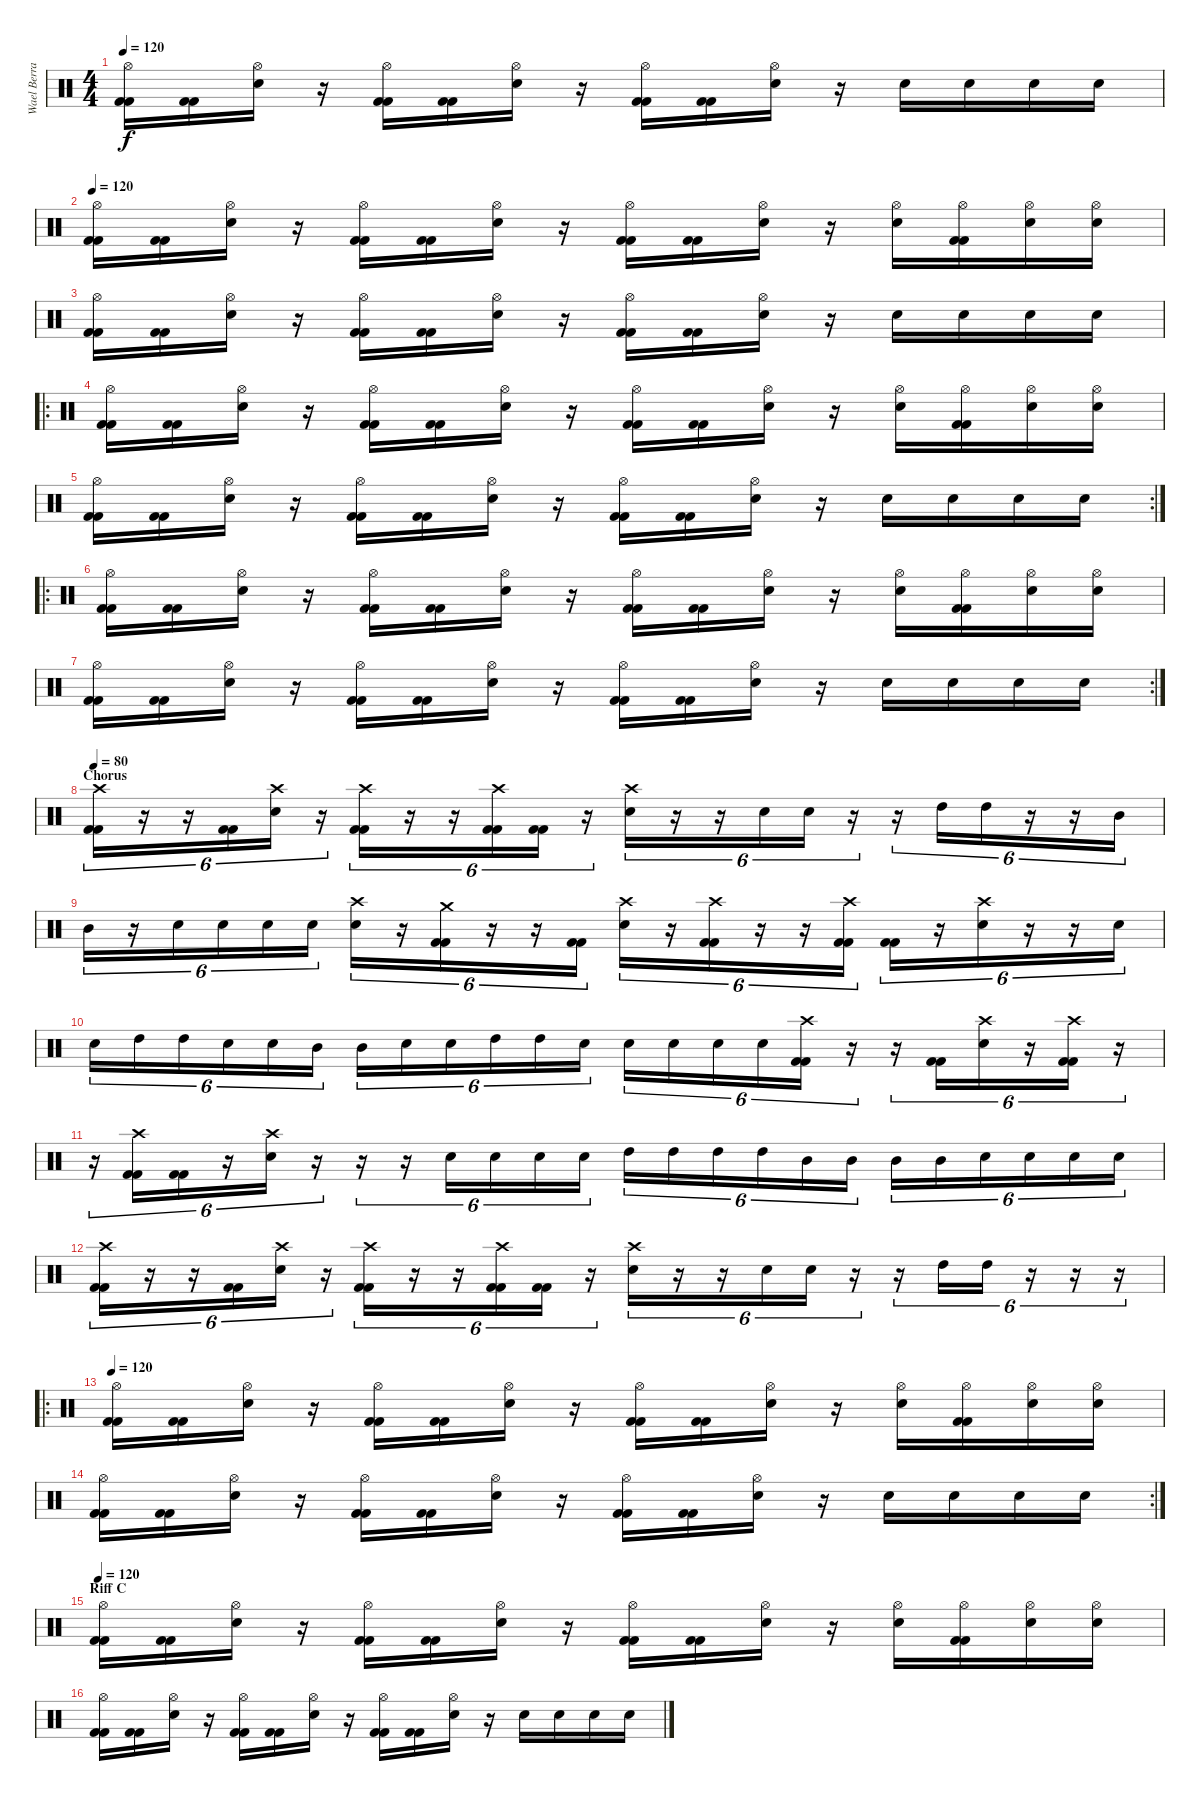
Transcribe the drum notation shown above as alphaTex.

\track ("Wael Berrais" "Wael Berra") {instrument percussion}
\staff {score}
\articulation defaults
\ts (4 4)
\tempo 120
\clef neutral
\ks c
("Hi-Hat (open)" "Kick (hit) 2" "Kick (hit) 2").16{dy f} ("Kick (hit) 2" "Kick (hit) 2").16 ("Hi-Hat (open)" "Electric Snare (hit)").16 r.16 ("Hi-Hat (open)" "Kick (hit) 2" "Kick (hit) 2").16 ("Kick (hit) 2" "Kick (hit) 2").16 ("Hi-Hat (open)" "Electric Snare (hit)").16 r.16 ("Hi-Hat (open)" "Kick (hit) 2" "Kick (hit) 2").16 ("Kick (hit) 2" "Kick (hit) 2").16 ("Hi-Hat (open)" "Electric Snare (hit)").16 r.16 "Electric Snare (hit)".16 "Electric Snare (hit)".16 "Electric Snare (hit)".16 "Electric Snare (hit)".16 |
\tempo 120
("Hi-Hat (open)" "Kick (hit) 2" "Kick (hit) 2").16 ("Kick (hit) 2" "Kick (hit) 2").16 ("Hi-Hat (open)" "Electric Snare (hit)").16 r.16 ("Hi-Hat (open)" "Kick (hit) 2" "Kick (hit) 2").16 ("Kick (hit) 2" "Kick (hit) 2").16 ("Hi-Hat (open)" "Electric Snare (hit)").16 r.16 ("Hi-Hat (open)" "Kick (hit) 2" "Kick (hit) 2").16 ("Kick (hit) 2" "Kick (hit) 2").16 ("Hi-Hat (open)" "Electric Snare (hit)").16 r.16 ("Hi-Hat (open)" "Electric Snare (hit)").16 ("Hi-Hat (open)" "Kick (hit) 2" "Kick (hit) 2").16 ("Hi-Hat (open)" "Electric Snare (hit)").16 ("Hi-Hat (open)" "Electric Snare (hit)").16 |
("Hi-Hat (open)" "Kick (hit) 2" "Kick (hit) 2").16 ("Kick (hit) 2" "Kick (hit) 2").16 ("Hi-Hat (open)" "Electric Snare (hit)").16 r.16 ("Hi-Hat (open)" "Kick (hit) 2" "Kick (hit) 2").16 ("Kick (hit) 2" "Kick (hit) 2").16 ("Hi-Hat (open)" "Electric Snare (hit)").16 r.16 ("Hi-Hat (open)" "Kick (hit) 2" "Kick (hit) 2").16 ("Kick (hit) 2" "Kick (hit) 2").16 ("Hi-Hat (open)" "Electric Snare (hit)").16 r.16 "Electric Snare (hit)".16 "Electric Snare (hit)".16 "Electric Snare (hit)".16 "Electric Snare (hit)".16 |
\ro
("Hi-Hat (open)" "Kick (hit) 2" "Kick (hit) 2").16 ("Kick (hit) 2" "Kick (hit) 2").16 ("Hi-Hat (open)" "Electric Snare (hit)").16 r.16 ("Hi-Hat (open)" "Kick (hit) 2" "Kick (hit) 2").16 ("Kick (hit) 2" "Kick (hit) 2").16 ("Hi-Hat (open)" "Electric Snare (hit)").16 r.16 ("Hi-Hat (open)" "Kick (hit) 2" "Kick (hit) 2").16 ("Kick (hit) 2" "Kick (hit) 2").16 ("Hi-Hat (open)" "Electric Snare (hit)").16 r.16 ("Hi-Hat (open)" "Electric Snare (hit)").16 ("Hi-Hat (open)" "Kick (hit) 2" "Kick (hit) 2").16 ("Hi-Hat (open)" "Electric Snare (hit)").16 ("Hi-Hat (open)" "Electric Snare (hit)").16 |
\rc 2
("Hi-Hat (open)" "Kick (hit) 2" "Kick (hit) 2").16 ("Kick (hit) 2" "Kick (hit) 2").16 ("Hi-Hat (open)" "Electric Snare (hit)").16 r.16 ("Hi-Hat (open)" "Kick (hit) 2" "Kick (hit) 2").16 ("Kick (hit) 2" "Kick (hit) 2").16 ("Hi-Hat (open)" "Electric Snare (hit)").16 r.16 ("Hi-Hat (open)" "Kick (hit) 2" "Kick (hit) 2").16 ("Kick (hit) 2" "Kick (hit) 2").16 ("Hi-Hat (open)" "Electric Snare (hit)").16 r.16 "Electric Snare (hit)".16 "Electric Snare (hit)".16 "Electric Snare (hit)".16 "Electric Snare (hit)".16 |
\ro
("Hi-Hat (open)" "Kick (hit) 2" "Kick (hit) 2").16 ("Kick (hit) 2" "Kick (hit) 2").16 ("Hi-Hat (open)" "Electric Snare (hit)").16 r.16 ("Hi-Hat (open)" "Kick (hit) 2" "Kick (hit) 2").16 ("Kick (hit) 2" "Kick (hit) 2").16 ("Hi-Hat (open)" "Electric Snare (hit)").16 r.16 ("Hi-Hat (open)" "Kick (hit) 2" "Kick (hit) 2").16 ("Kick (hit) 2" "Kick (hit) 2").16 ("Hi-Hat (open)" "Electric Snare (hit)").16 r.16 ("Hi-Hat (open)" "Electric Snare (hit)").16 ("Hi-Hat (open)" "Kick (hit) 2" "Kick (hit) 2").16 ("Hi-Hat (open)" "Electric Snare (hit)").16 ("Hi-Hat (open)" "Electric Snare (hit)").16 |
\rc 2
("Hi-Hat (open)" "Kick (hit) 2" "Kick (hit) 2").16 ("Kick (hit) 2" "Kick (hit) 2").16 ("Hi-Hat (open)" "Electric Snare (hit)").16 r.16 ("Hi-Hat (open)" "Kick (hit) 2" "Kick (hit) 2").16 ("Kick (hit) 2" "Kick (hit) 2").16 ("Hi-Hat (open)" "Electric Snare (hit)").16 r.16 ("Hi-Hat (open)" "Kick (hit) 2" "Kick (hit) 2").16 ("Kick (hit) 2" "Kick (hit) 2").16 ("Hi-Hat (open)" "Electric Snare (hit)").16 r.16 "Electric Snare (hit)".16 "Electric Snare (hit)".16 "Electric Snare (hit)".16 "Electric Snare (hit)".16 |
\section ("" "Chorus")
\tempo 80
("Crash high (hit)" "Kick (hit) 2" "Kick (hit) 2").16{tu (6 4)} r.16{tu (6 4)} r.16{tu (6 4)} ("Kick (hit) 2" "Kick (hit) 2").16{tu (6 4)} ("Electric Snare (hit)" "Crash high (hit)").16{tu (6 4)} r.16{tu (6 4)} ("Crash high (hit)" "Kick (hit) 2" "Kick (hit) 2").16{tu (6 4)} r.16{tu (6 4)} r.16{tu (6 4)} ("Crash high (hit)" "Kick (hit) 2" "Kick (hit) 2").16{tu (6 4)} ("Kick (hit) 2" "Kick (hit) 2").16{tu (6 4)} r.16{tu (6 4)} ("Crash high (hit)" "Electric Snare (hit)").16{tu (6 4)} r.16{tu (6 4)} r.16{tu (6 4)} "Electric Snare (hit)".16{tu (6 4)} "Electric Snare (hit)".16{tu (6 4)} r.16{tu (6 4)} r.16{tu (6 4)} "High Tom (hit)".16{tu (6 4)} "High Tom (hit)".16{tu (6 4)} r.16{tu (6 4)} r.16{tu (6 4)} "Mid Tom (hit)".16{tu (6 4)} |
"Mid Tom (hit)".16{tu (6 4)} r.16{tu (6 4)} "Electric Snare (hit)".16{tu (6 4)} "Electric Snare (hit)".16{tu (6 4)} "Electric Snare (hit)".16{tu (6 4)} "Electric Snare (hit)".16{tu (6 4)} ("Electric Snare (hit)" "Crash high (hit)").16{tu (6 4)} r.16{tu (6 4)} ("Crash medium (hit)" "Kick (hit) 2" "Kick (hit) 2").16{tu (6 4)} r.16{tu (6 4)} r.16{tu (6 4)} ("Kick (hit) 2" "Kick (hit) 2").16{tu (6 4)} ("Electric Snare (hit)" "Crash high (hit)").16{tu (6 4)} r.16{tu (6 4)} ("Crash high (hit)" "Kick (hit) 2" "Kick (hit) 2").16{tu (6 4)} r.16{tu (6 4)} r.16{tu (6 4)} ("Crash high (hit)" "Kick (hit) 2" "Kick (hit) 2").16{tu (6 4)} ("Kick (hit) 2" "Kick (hit) 2").16{tu (6 4)} r.16{tu (6 4)} ("Electric Snare (hit)" "Crash high (hit)").16{tu (6 4)} r.16{tu (6 4)} r.16{tu (6 4)} "Electric Snare (hit)".16{tu (6 4)} |
"Electric Snare (hit)".16{tu (6 4)} "High Tom (hit)".16{tu (6 4)} "High Tom (hit)".16{tu (6 4)} "Electric Snare (hit)".16{tu (6 4)} "Electric Snare (hit)".16{tu (6 4)} "Mid Tom (hit)".16{tu (6 4)} "Mid Tom (hit)".16{tu (6 4)} "Electric Snare (hit)".16{tu (6 4)} "Electric Snare (hit)".16{tu (6 4)} "High Tom (hit)".16{tu (6 4)} "High Tom (hit)".16{tu (6 4)} "Electric Snare (hit)".16{tu (6 4)} "Electric Snare (hit)".16{tu (6 4)} "Electric Snare (hit)".16{tu (6 4)} "Electric Snare (hit)".16{tu (6 4)} "Electric Snare (hit)".16{tu (6 4)} ("Crash high (hit)" "Kick (hit) 2" "Kick (hit) 2").16{tu (6 4)} r.16{tu (6 4)} r.16{tu (6 4)} ("Kick (hit) 2" "Kick (hit) 2").16{tu (6 4)} ("Crash high (hit)" "Electric Snare (hit)").16{tu (6 4)} r.16{tu (6 4)} ("Crash high (hit)" "Kick (hit) 2" "Kick (hit) 2").16{tu (6 4)} r.16{tu (6 4)} |
r.16{tu (6 4)} ("Crash high (hit)" "Kick (hit) 2" "Kick (hit) 2").16{tu (6 4)} ("Kick (hit) 2" "Kick (hit) 2").16{tu (6 4)} r.16{tu (6 4)} ("Electric Snare (hit)" "Crash high (hit)").16{tu (6 4)} r.16{tu (6 4)} r.16{tu (6 4)} r.16{tu (6 4)} "Electric Snare (hit)".16{tu (6 4)} "Electric Snare (hit)".16{tu (6 4)} "Electric Snare (hit)".16{tu (6 4)} "Electric Snare (hit)".16{tu (6 4)} "High Tom (hit)".16{tu (6 4)} "High Tom (hit)".16{tu (6 4)} "High Tom (hit)".16{tu (6 4)} "High Tom (hit)".16{tu (6 4)} "Mid Tom (hit)".16{tu (6 4)} "Mid Tom (hit)".16{tu (6 4)} "Mid Tom (hit)".16{tu (6 4)} "Mid Tom (hit)".16{tu (6 4)} "Electric Snare (hit)".16{tu (6 4)} "Electric Snare (hit)".16{tu (6 4)} "Electric Snare (hit)".16{tu (6 4)} "Electric Snare (hit)".16{tu (6 4)} |
("Crash high (hit)" "Kick (hit) 2" "Kick (hit) 2").16{tu (6 4)} r.16{tu (6 4)} r.16{tu (6 4)} ("Kick (hit) 2" "Kick (hit) 2").16{tu (6 4)} ("Electric Snare (hit)" "Crash high (hit)").16{tu (6 4)} r.16{tu (6 4)} ("Crash high (hit)" "Kick (hit) 2" "Kick (hit) 2").16{tu (6 4)} r.16{tu (6 4)} r.16{tu (6 4)} ("Crash high (hit)" "Kick (hit) 2" "Kick (hit) 2").16{tu (6 4)} ("Kick (hit) 2" "Kick (hit) 2").16{tu (6 4)} r.16{tu (6 4)} ("Crash high (hit)" "Electric Snare (hit)").16{tu (6 4)} r.16{tu (6 4)} r.16{tu (6 4)} "Electric Snare (hit)".16{tu (6 4)} "Electric Snare (hit)".16{tu (6 4)} r.16{tu (6 4)} r.16{tu (6 4)} "High Tom (hit)".16{tu (6 4)} "High Tom (hit)".16{tu (6 4)} r.16{tu (6 4)} r.16{tu (6 4)} r.16{tu (6 4)} |
\ro
\tempo 120
("Hi-Hat (open)" "Kick (hit) 2" "Kick (hit) 2").16 ("Kick (hit) 2" "Kick (hit) 2").16 ("Hi-Hat (open)" "Electric Snare (hit)").16 r.16 ("Hi-Hat (open)" "Kick (hit) 2" "Kick (hit) 2").16 ("Kick (hit) 2" "Kick (hit) 2").16 ("Hi-Hat (open)" "Electric Snare (hit)").16 r.16 ("Hi-Hat (open)" "Kick (hit) 2" "Kick (hit) 2").16 ("Kick (hit) 2" "Kick (hit) 2").16 ("Hi-Hat (open)" "Electric Snare (hit)").16 r.16 ("Hi-Hat (open)" "Electric Snare (hit)").16 ("Hi-Hat (open)" "Kick (hit) 2" "Kick (hit) 2").16 ("Hi-Hat (open)" "Electric Snare (hit)").16 ("Hi-Hat (open)" "Electric Snare (hit)").16 |
\rc 2
("Hi-Hat (open)" "Kick (hit) 2" "Kick (hit) 2").16 ("Kick (hit) 2" "Kick (hit) 2").16 ("Hi-Hat (open)" "Electric Snare (hit)").16 r.16 ("Hi-Hat (open)" "Kick (hit) 2" "Kick (hit) 2").16 ("Kick (hit) 2" "Kick (hit) 2").16 ("Hi-Hat (open)" "Electric Snare (hit)").16 r.16 ("Hi-Hat (open)" "Kick (hit) 2" "Kick (hit) 2").16 ("Kick (hit) 2" "Kick (hit) 2").16 ("Hi-Hat (open)" "Electric Snare (hit)").16 r.16 "Electric Snare (hit)".16 "Electric Snare (hit)".16 "Electric Snare (hit)".16 "Electric Snare (hit)".16 |
\section ("" "Riff C")
\tempo 120
("Hi-Hat (open)" "Kick (hit) 2" "Kick (hit) 2").16 ("Kick (hit) 2" "Kick (hit) 2").16 ("Hi-Hat (open)" "Electric Snare (hit)").16 r.16 ("Hi-Hat (open)" "Kick (hit) 2" "Kick (hit) 2").16 ("Kick (hit) 2" "Kick (hit) 2").16 ("Hi-Hat (open)" "Electric Snare (hit)").16 r.16 ("Hi-Hat (open)" "Kick (hit) 2" "Kick (hit) 2").16 ("Kick (hit) 2" "Kick (hit) 2").16 ("Hi-Hat (open)" "Electric Snare (hit)").16 r.16 ("Hi-Hat (open)" "Electric Snare (hit)").16 ("Hi-Hat (open)" "Kick (hit) 2" "Kick (hit) 2").16 ("Hi-Hat (open)" "Electric Snare (hit)").16 ("Hi-Hat (open)" "Electric Snare (hit)").16 |
("Hi-Hat (open)" "Kick (hit) 2" "Kick (hit) 2").16 ("Kick (hit) 2" "Kick (hit) 2").16 ("Hi-Hat (open)" "Electric Snare (hit)").16 r.16 ("Hi-Hat (open)" "Kick (hit) 2" "Kick (hit) 2").16 ("Kick (hit) 2" "Kick (hit) 2").16 ("Hi-Hat (open)" "Electric Snare (hit)").16 r.16 ("Hi-Hat (open)" "Kick (hit) 2" "Kick (hit) 2").16 ("Kick (hit) 2" "Kick (hit) 2").16 ("Hi-Hat (open)" "Electric Snare (hit)").16 r.16 "Electric Snare (hit)".16 "Electric Snare (hit)".16 "Electric Snare (hit)".16 "Electric Snare (hit)".16
